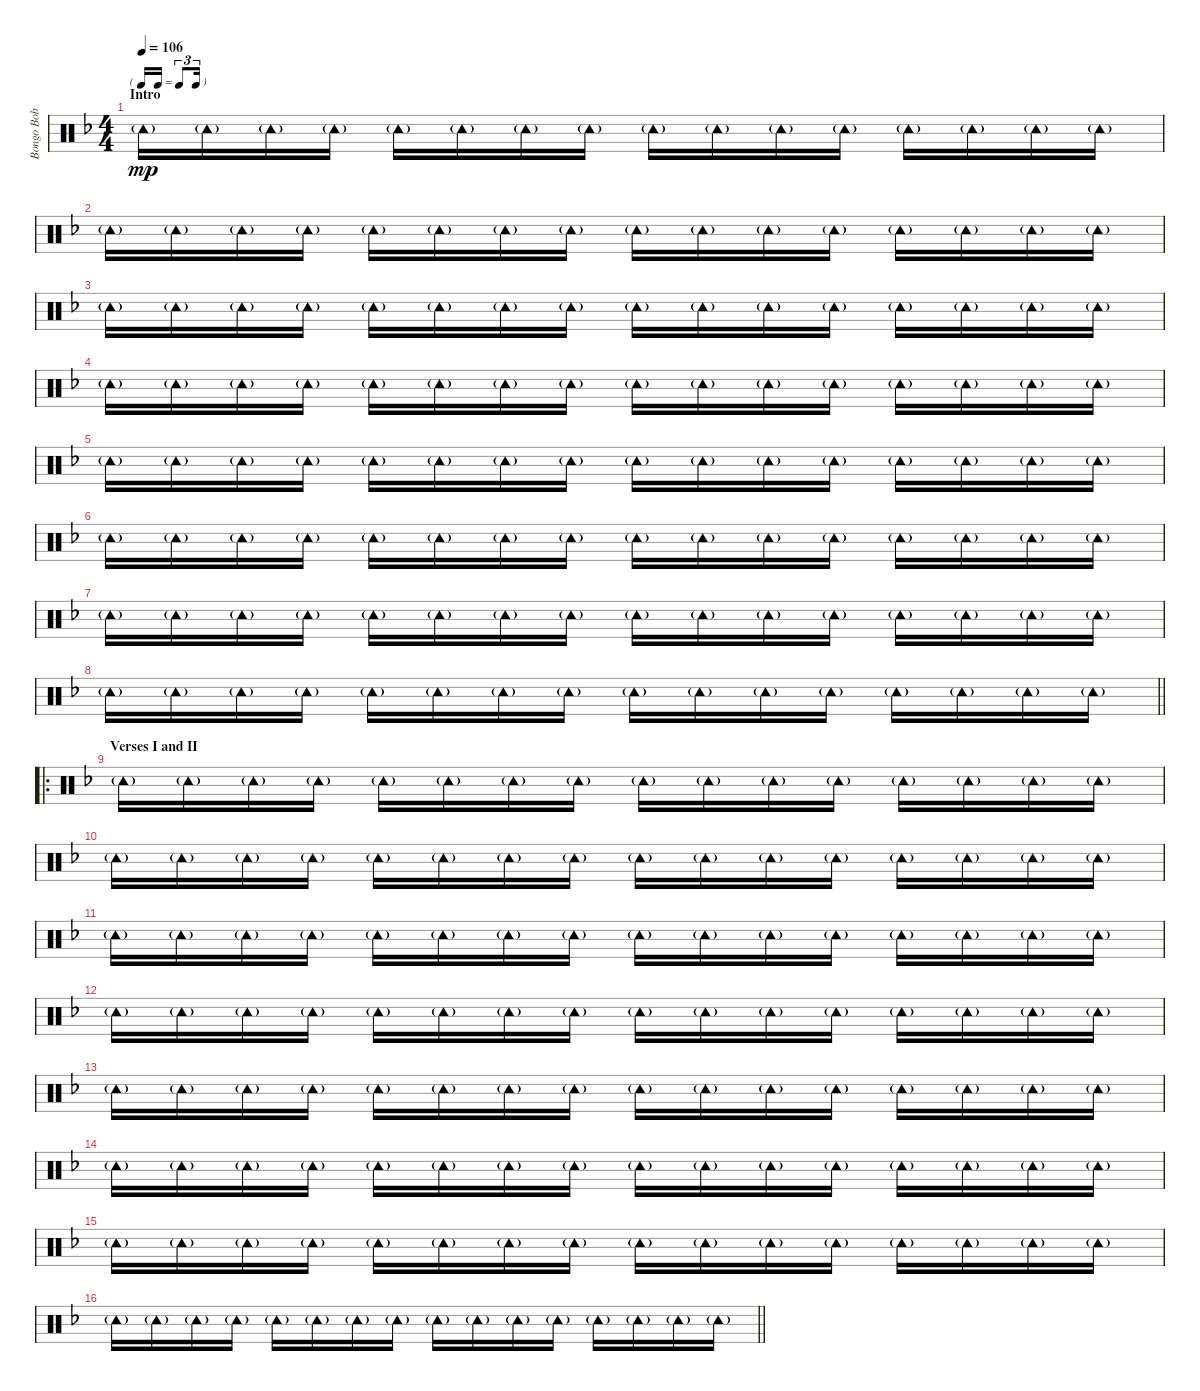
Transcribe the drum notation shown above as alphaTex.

\track ("Bongo Bob Smith (Tambourine)" "Bongo Bob ") {instrument percussion}
\staff {score}
\articulation defaults
\ts (4 4)
\tf triplet16th
\section ("" "Intro")
\tempo 106
\clef neutral
\ks f "Tambourine (hit)"{g}.16{dy mp} "Tambourine (hit)"{g}.16 "Tambourine (hit)"{g}.16 "Tambourine (hit)"{g}.16 "Tambourine (hit)"{g}.16 "Tambourine (hit)"{g}.16 "Tambourine (hit)"{g}.16 "Tambourine (hit)"{g}.16 "Tambourine (hit)"{g}.16 "Tambourine (hit)"{g}.16 "Tambourine (hit)"{g}.16 "Tambourine (hit)"{g}.16 "Tambourine (hit)"{g}.16 "Tambourine (hit)"{g}.16 "Tambourine (hit)"{g}.16 "Tambourine (hit)"{g}.16
|
"Tambourine (hit)"{g}.16 "Tambourine (hit)"{g}.16 "Tambourine (hit)"{g}.16 "Tambourine (hit)"{g}.16 "Tambourine (hit)"{g}.16 "Tambourine (hit)"{g}.16 "Tambourine (hit)"{g}.16 "Tambourine (hit)"{g}.16 "Tambourine (hit)"{g}.16 "Tambourine (hit)"{g}.16 "Tambourine (hit)"{g}.16 "Tambourine (hit)"{g}.16 "Tambourine (hit)"{g}.16 "Tambourine (hit)"{g}.16 "Tambourine (hit)"{g}.16 "Tambourine (hit)"{g}.16 |
"Tambourine (hit)"{g}.16 "Tambourine (hit)"{g}.16 "Tambourine (hit)"{g}.16 "Tambourine (hit)"{g}.16 "Tambourine (hit)"{g}.16 "Tambourine (hit)"{g}.16 "Tambourine (hit)"{g}.16 "Tambourine (hit)"{g}.16 "Tambourine (hit)"{g}.16 "Tambourine (hit)"{g}.16 "Tambourine (hit)"{g}.16 "Tambourine (hit)"{g}.16 "Tambourine (hit)"{g}.16 "Tambourine (hit)"{g}.16 "Tambourine (hit)"{g}.16 "Tambourine (hit)"{g}.16 |
"Tambourine (hit)"{g}.16 "Tambourine (hit)"{g}.16 "Tambourine (hit)"{g}.16 "Tambourine (hit)"{g}.16 "Tambourine (hit)"{g}.16 "Tambourine (hit)"{g}.16 "Tambourine (hit)"{g}.16 "Tambourine (hit)"{g}.16 "Tambourine (hit)"{g}.16 "Tambourine (hit)"{g}.16 "Tambourine (hit)"{g}.16 "Tambourine (hit)"{g}.16 "Tambourine (hit)"{g}.16 "Tambourine (hit)"{g}.16 "Tambourine (hit)"{g}.16 "Tambourine (hit)"{g}.16 |
"Tambourine (hit)"{g}.16 "Tambourine (hit)"{g}.16 "Tambourine (hit)"{g}.16 "Tambourine (hit)"{g}.16 "Tambourine (hit)"{g}.16 "Tambourine (hit)"{g}.16 "Tambourine (hit)"{g}.16 "Tambourine (hit)"{g}.16 "Tambourine (hit)"{g}.16 "Tambourine (hit)"{g}.16 "Tambourine (hit)"{g}.16 "Tambourine (hit)"{g}.16 "Tambourine (hit)"{g}.16 "Tambourine (hit)"{g}.16 "Tambourine (hit)"{g}.16 "Tambourine (hit)"{g}.16 |
"Tambourine (hit)"{g}.16 "Tambourine (hit)"{g}.16 "Tambourine (hit)"{g}.16 "Tambourine (hit)"{g}.16 "Tambourine (hit)"{g}.16 "Tambourine (hit)"{g}.16 "Tambourine (hit)"{g}.16 "Tambourine (hit)"{g}.16 "Tambourine (hit)"{g}.16 "Tambourine (hit)"{g}.16 "Tambourine (hit)"{g}.16 "Tambourine (hit)"{g}.16 "Tambourine (hit)"{g}.16 "Tambourine (hit)"{g}.16 "Tambourine (hit)"{g}.16 "Tambourine (hit)"{g}.16 |
"Tambourine (hit)"{g}.16 "Tambourine (hit)"{g}.16 "Tambourine (hit)"{g}.16 "Tambourine (hit)"{g}.16 "Tambourine (hit)"{g}.16 "Tambourine (hit)"{g}.16 "Tambourine (hit)"{g}.16 "Tambourine (hit)"{g}.16 "Tambourine (hit)"{g}.16 "Tambourine (hit)"{g}.16 "Tambourine (hit)"{g}.16 "Tambourine (hit)"{g}.16 "Tambourine (hit)"{g}.16 "Tambourine (hit)"{g}.16 "Tambourine (hit)"{g}.16 "Tambourine (hit)"{g}.16 |
\barLineRight lightlight "Tambourine (hit)"{g}.16 "Tambourine (hit)"{g}.16 "Tambourine (hit)"{g}.16 "Tambourine (hit)"{g}.16 "Tambourine (hit)"{g}.16 "Tambourine (hit)"{g}.16 "Tambourine (hit)"{g}.16 "Tambourine (hit)"{g}.16 "Tambourine (hit)"{g}.16 "Tambourine (hit)"{g}.16 "Tambourine (hit)"{g}.16 "Tambourine (hit)"{g}.16 "Tambourine (hit)"{g}.16 "Tambourine (hit)"{g}.16 "Tambourine (hit)"{g}.16 "Tambourine (hit)"{g}.16
|
\ro
\section ("" "Verses I and II")
"Tambourine (hit)"{g}.16 "Tambourine (hit)"{g}.16 "Tambourine (hit)"{g}.16 "Tambourine (hit)"{g}.16 "Tambourine (hit)"{g}.16 "Tambourine (hit)"{g}.16 "Tambourine (hit)"{g}.16 "Tambourine (hit)"{g}.16 "Tambourine (hit)"{g}.16 "Tambourine (hit)"{g}.16 "Tambourine (hit)"{g}.16 "Tambourine (hit)"{g}.16 "Tambourine (hit)"{g}.16 "Tambourine (hit)"{g}.16 "Tambourine (hit)"{g}.16 "Tambourine (hit)"{g}.16 |
"Tambourine (hit)"{g}.16 "Tambourine (hit)"{g}.16 "Tambourine (hit)"{g}.16 "Tambourine (hit)"{g}.16 "Tambourine (hit)"{g}.16 "Tambourine (hit)"{g}.16 "Tambourine (hit)"{g}.16 "Tambourine (hit)"{g}.16 "Tambourine (hit)"{g}.16 "Tambourine (hit)"{g}.16 "Tambourine (hit)"{g}.16 "Tambourine (hit)"{g}.16 "Tambourine (hit)"{g}.16 "Tambourine (hit)"{g}.16 "Tambourine (hit)"{g}.16 "Tambourine (hit)"{g}.16 |
"Tambourine (hit)"{g}.16 "Tambourine (hit)"{g}.16 "Tambourine (hit)"{g}.16 "Tambourine (hit)"{g}.16 "Tambourine (hit)"{g}.16 "Tambourine (hit)"{g}.16 "Tambourine (hit)"{g}.16 "Tambourine (hit)"{g}.16 "Tambourine (hit)"{g}.16 "Tambourine (hit)"{g}.16 "Tambourine (hit)"{g}.16 "Tambourine (hit)"{g}.16 "Tambourine (hit)"{g}.16 "Tambourine (hit)"{g}.16 "Tambourine (hit)"{g}.16 "Tambourine (hit)"{g}.16 |
"Tambourine (hit)"{g}.16 "Tambourine (hit)"{g}.16 "Tambourine (hit)"{g}.16 "Tambourine (hit)"{g}.16 "Tambourine (hit)"{g}.16 "Tambourine (hit)"{g}.16 "Tambourine (hit)"{g}.16 "Tambourine (hit)"{g}.16 "Tambourine (hit)"{g}.16 "Tambourine (hit)"{g}.16 "Tambourine (hit)"{g}.16 "Tambourine (hit)"{g}.16 "Tambourine (hit)"{g}.16 "Tambourine (hit)"{g}.16 "Tambourine (hit)"{g}.16 "Tambourine (hit)"{g}.16 |
"Tambourine (hit)"{g}.16 "Tambourine (hit)"{g}.16 "Tambourine (hit)"{g}.16 "Tambourine (hit)"{g}.16 "Tambourine (hit)"{g}.16 "Tambourine (hit)"{g}.16 "Tambourine (hit)"{g}.16 "Tambourine (hit)"{g}.16 "Tambourine (hit)"{g}.16 "Tambourine (hit)"{g}.16 "Tambourine (hit)"{g}.16 "Tambourine (hit)"{g}.16 "Tambourine (hit)"{g}.16 "Tambourine (hit)"{g}.16 "Tambourine (hit)"{g}.16 "Tambourine (hit)"{g}.16 |
"Tambourine (hit)"{g}.16 "Tambourine (hit)"{g}.16 "Tambourine (hit)"{g}.16 "Tambourine (hit)"{g}.16 "Tambourine (hit)"{g}.16 "Tambourine (hit)"{g}.16 "Tambourine (hit)"{g}.16 "Tambourine (hit)"{g}.16 "Tambourine (hit)"{g}.16 "Tambourine (hit)"{g}.16 "Tambourine (hit)"{g}.16 "Tambourine (hit)"{g}.16 "Tambourine (hit)"{g}.16 "Tambourine (hit)"{g}.16 "Tambourine (hit)"{g}.16 "Tambourine (hit)"{g}.16 |
"Tambourine (hit)"{g}.16 "Tambourine (hit)"{g}.16 "Tambourine (hit)"{g}.16 "Tambourine (hit)"{g}.16 "Tambourine (hit)"{g}.16 "Tambourine (hit)"{g}.16 "Tambourine (hit)"{g}.16 "Tambourine (hit)"{g}.16 "Tambourine (hit)"{g}.16 "Tambourine (hit)"{g}.16 "Tambourine (hit)"{g}.16 "Tambourine (hit)"{g}.16 "Tambourine (hit)"{g}.16 "Tambourine (hit)"{g}.16 "Tambourine (hit)"{g}.16 "Tambourine (hit)"{g}.16 |
\barLineRight lightlight "Tambourine (hit)"{g}.16 "Tambourine (hit)"{g}.16 "Tambourine (hit)"{g}.16 "Tambourine (hit)"{g}.16 "Tambourine (hit)"{g}.16 "Tambourine (hit)"{g}.16 "Tambourine (hit)"{g}.16 "Tambourine (hit)"{g}.16 "Tambourine (hit)"{g}.16 "Tambourine (hit)"{g}.16 "Tambourine (hit)"{g}.16 "Tambourine (hit)"{g}.16 "Tambourine (hit)"{g}.16 "Tambourine (hit)"{g}.16 "Tambourine (hit)"{g}.16 "Tambourine (hit)"{g}.16
